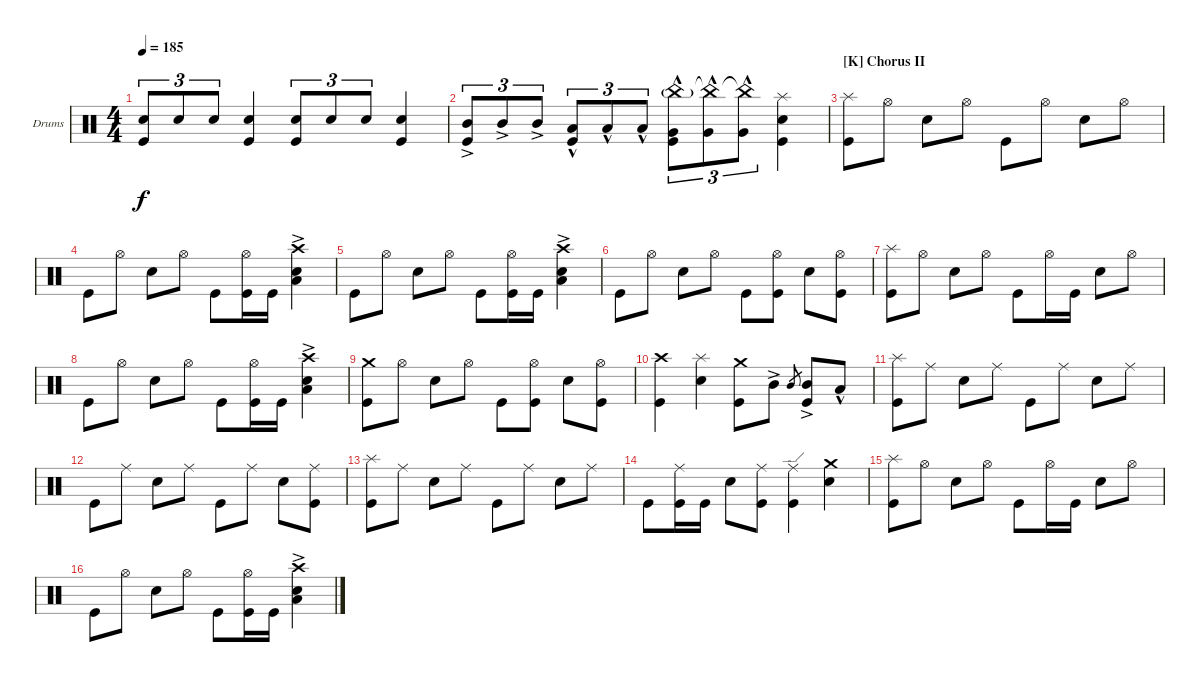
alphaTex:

\defaultSystemsLayout 4
\bracketExtendMode groupsimilarinstruments
\firstSystemTrackNameOrientation horizontal
\otherSystemsTrackNameOrientation horizontal
\track ("Drumkit" "Drums") {instrument percussion}
\staff {score}
\articulation defaults
\ts (4 4)
\tempo 185
\clef neutral
\ks c
("Snare (hit) 2" "Kick (hit)").8{tu (3 2) dy f} "Snare (hit) 2".8{tu (3 2)} "Snare (hit) 2".8{tu (3 2)} ("Kick (hit)" "Snare (hit) 2").4 ("Snare (hit) 2" "Kick (hit)").8{tu (3 2)} "Snare (hit) 2".8{tu (3 2)} "Snare (hit) 2".8{tu (3 2)} ("Kick (hit)" "Snare (hit) 2").4 |
("Kick (hit)" "Mid Tom (hit)"{ac}).8{tu (3 2)} "Mid Tom (hit)"{ac}.8{tu (3 2)} "Mid Tom (hit)"{ac}.8{tu (3 2)} ("Low Tom (hit)"{hac} "Kick (hit)").8{tu (3 2)} "Low Tom (hit)"{hac}.8{tu (3 2)} "Low Tom (hit)"{hac}.8{tu (3 2)} ("Very Low Tom (hit)"{hac} "China (hit)"{g} "Kick (hit)").8{tu (3 2)} ("Very Low Tom (hit)"{hac} "China (hit)"{t}).8{tu (3 2)} ("Very Low Tom (hit)"{hac} "China (hit)"{t}).8{tu (3 2)} ("Kick (hit)" "Snare (hit) 2" "Splash (hit)").4 |
\section ("K" "Chorus II")
("Kick (hit)" "Splash (hit)").8 "Hi-Hat (open)".8 "Snare (hit) 2".8 "Hi-Hat (open)".8 "Kick (hit)".8 "Hi-Hat (open)".8 "Snare (hit) 2".8 "Hi-Hat (open)".8 |
"Kick (hit)".8 "Hi-Hat (open)".8 "Snare (hit) 2".8 "Hi-Hat (open)".8 "Kick (hit)".8 ("Kick (hit)" "Hi-Hat (open)").16 "Kick (hit)".16 ("Snare (hit) 2" "Crash high (hit)" "Low Tom (hit)"{ac}).4 |
"Kick (hit)".8 "Hi-Hat (open)".8 "Snare (hit) 2".8 "Hi-Hat (open)".8 "Kick (hit)".8 ("Kick (hit)" "Hi-Hat (open)").16 "Kick (hit)".16 ("Snare (hit) 2" "Crash high (hit)" "Low Tom (hit)"{ac}).4 |
"Kick (hit)".8 "Hi-Hat (open)".8 "Snare (hit) 2".8 "Hi-Hat (open)".8 "Kick (hit)".8 ("Kick (hit)" "Hi-Hat (open)").8 "Snare (hit) 2".8 ("Kick (hit)" "Hi-Hat (open)").8 |
("Kick (hit)" "Splash (hit)").8 "Hi-Hat (open)".8 "Snare (hit) 2".8 "Hi-Hat (open)".8 "Kick (hit)".8 "Hi-Hat (open)".16 "Kick (hit)".16 "Snare (hit) 2".8 "Hi-Hat (open)".8 |
"Kick (hit)".8 "Hi-Hat (open)".8 "Snare (hit) 2".8 "Hi-Hat (open)".8 "Kick (hit)".8 ("Kick (hit)" "Hi-Hat (open)").16 "Kick (hit)".16 ("Snare (hit) 2" "Crash high (hit)" "Low Tom (hit)"{ac}).4 |
("Kick (hit)" "Crash medium (hit)").8 "Hi-Hat (open)".8 "Snare (hit) 2".8 "Hi-Hat (open)".8 "Kick (hit)".8 ("Kick (hit)" "Hi-Hat (open)").8 "Snare (hit) 2".8 ("Kick (hit)" "Hi-Hat (open)").8 |
("Kick (hit)" "Crash high (hit)").4 ("Snare (hit) 2" "Splash (hit)").4 ("Kick (hit)" "Crash medium (hit)").8 "Mid Tom (hit)"{ac}.8 "Mid Tom (hit)".8{gr} ("Kick (hit)" "Mid Tom (hit)"{ac}).8 "Low Tom (hit)"{hac}.8 |
("Kick (hit)" "Splash (hit)").8 "Ride (middle)".8 "Snare (hit) 2".8 "Ride (middle)".8 "Kick (hit)".8 "Ride (middle)".8 "Snare (hit) 2".8 "Ride (middle)".8 |
"Kick (hit)".8 "Ride (middle)".8 "Snare (hit) 2".8 "Ride (middle)".8 "Kick (hit)".8 "Ride (middle)".8 "Snare (hit) 2".8 ("Ride (middle)" "Kick (hit)").8 |
("Kick (hit)" "Splash (hit)").8 "Ride (middle)".8 "Snare (hit) 2".8 "Ride (middle)".8 "Kick (hit)".8 "Ride (middle)".8 "Snare (hit) 2".8 "Ride (middle)".8 |
"Kick (hit)".8 ("Ride (middle)" "Kick (hit)").16 "Kick (hit)".16 "Snare (hit) 2".8 ("Ride (middle)" "Kick (hit)").8 ("Kick (hit)" "Ride (edge)").4 ("Snare (hit) 2" "Crash medium (hit)").4 |
("Kick (hit)" "Splash (hit)").8 "Hi-Hat (open)".8 "Snare (hit) 2".8 "Hi-Hat (open)".8 "Kick (hit)".8 "Hi-Hat (open)".16 "Kick (hit)".16 "Snare (hit) 2".8 "Hi-Hat (open)".8 |
"Kick (hit)".8 "Hi-Hat (open)".8 "Snare (hit) 2".8 "Hi-Hat (open)".8 "Kick (hit)".8 ("Kick (hit)" "Hi-Hat (open)").16 "Kick (hit)".16 ("Snare (hit) 2" "Crash high (hit)" "Low Tom (hit)"{ac}).4
